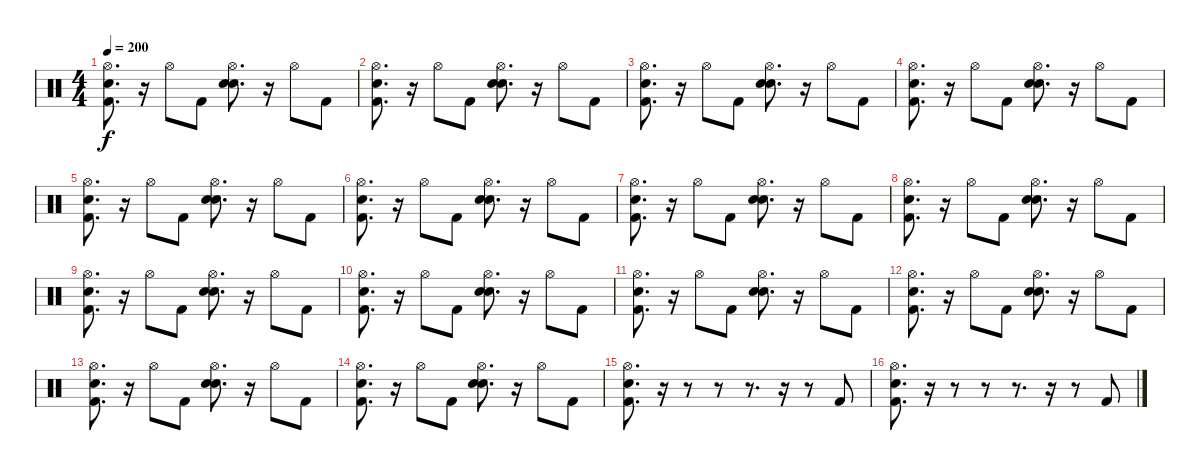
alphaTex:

\track "" {instrument percussion}
\staff {score}
\articulation defaults
\ts (4 4)
\tempo 200
\clef neutral
\ks c
("Snare (hit)" "Kick (hit) 2" "Hi-Hat (open)").8{d dy f} r.16 "Hi-Hat (open)".8 "Kick (hit) 2".8 ("Snare (hit)" "Snare (hit) 2" "Hi-Hat (open)").8{d} r.16 "Hi-Hat (open)".8 "Kick (hit) 2".8 |
("Snare (hit)" "Kick (hit) 2" "Hi-Hat (open)").8{d} r.16 "Hi-Hat (open)".8 "Kick (hit) 2".8 ("Snare (hit)" "Snare (hit) 2" "Hi-Hat (open)").8{d} r.16 "Hi-Hat (open)".8 "Kick (hit) 2".8 |
("Snare (hit)" "Kick (hit) 2" "Hi-Hat (open)").8{d} r.16 "Hi-Hat (open)".8 "Kick (hit) 2".8 ("Snare (hit)" "Snare (hit) 2" "Hi-Hat (open)").8{d} r.16 "Hi-Hat (open)".8 "Kick (hit) 2".8 |
("Snare (hit)" "Kick (hit) 2" "Hi-Hat (open)").8{d} r.16 "Hi-Hat (open)".8 "Kick (hit) 2".8 ("Snare (hit)" "Snare (hit) 2" "Hi-Hat (open)").8{d} r.16 "Hi-Hat (open)".8 "Kick (hit) 2".8 |
("Snare (hit)" "Kick (hit) 2" "Hi-Hat (open)").8{d} r.16 "Hi-Hat (open)".8 "Kick (hit) 2".8 ("Snare (hit)" "Snare (hit) 2" "Hi-Hat (open)").8{d} r.16 "Hi-Hat (open)".8 "Kick (hit) 2".8 |
("Snare (hit)" "Kick (hit) 2" "Hi-Hat (open)").8{d} r.16 "Hi-Hat (open)".8 "Kick (hit) 2".8 ("Snare (hit)" "Snare (hit) 2" "Hi-Hat (open)").8{d} r.16 "Hi-Hat (open)".8 "Kick (hit) 2".8 |
("Snare (hit)" "Kick (hit) 2" "Hi-Hat (open)").8{d} r.16 "Hi-Hat (open)".8 "Kick (hit) 2".8 ("Snare (hit)" "Snare (hit) 2" "Hi-Hat (open)").8{d} r.16 "Hi-Hat (open)".8 "Kick (hit) 2".8 |
("Snare (hit)" "Kick (hit) 2" "Hi-Hat (open)").8{d} r.16 "Hi-Hat (open)".8 "Kick (hit) 2".8 ("Snare (hit)" "Snare (hit) 2" "Hi-Hat (open)").8{d} r.16 "Hi-Hat (open)".8 "Kick (hit) 2".8 |
("Snare (hit)" "Kick (hit) 2" "Hi-Hat (open)").8{d} r.16 "Hi-Hat (open)".8 "Kick (hit) 2".8 ("Snare (hit)" "Snare (hit) 2" "Hi-Hat (open)").8{d} r.16 "Hi-Hat (open)".8 "Kick (hit) 2".8 |
("Snare (hit)" "Kick (hit) 2" "Hi-Hat (open)").8{d} r.16 "Hi-Hat (open)".8 "Kick (hit) 2".8 ("Snare (hit)" "Snare (hit) 2" "Hi-Hat (open)").8{d} r.16 "Hi-Hat (open)".8 "Kick (hit) 2".8 |
("Snare (hit)" "Kick (hit) 2" "Hi-Hat (open)").8{d} r.16 "Hi-Hat (open)".8 "Kick (hit) 2".8 ("Snare (hit)" "Snare (hit) 2" "Hi-Hat (open)").8{d} r.16 "Hi-Hat (open)".8 "Kick (hit) 2".8 |
("Snare (hit)" "Kick (hit) 2" "Hi-Hat (open)").8{d} r.16 "Hi-Hat (open)".8 "Kick (hit) 2".8 ("Snare (hit)" "Snare (hit) 2" "Hi-Hat (open)").8{d} r.16 "Hi-Hat (open)".8 "Kick (hit) 2".8 |
("Snare (hit)" "Kick (hit) 2" "Hi-Hat (open)").8{d} r.16 "Hi-Hat (open)".8 "Kick (hit) 2".8 ("Snare (hit)" "Snare (hit) 2" "Hi-Hat (open)").8{d} r.16 "Hi-Hat (open)".8 "Kick (hit) 2".8 |
("Snare (hit)" "Kick (hit) 2" "Hi-Hat (open)").8{d} r.16 "Hi-Hat (open)".8 "Kick (hit) 2".8 ("Snare (hit)" "Snare (hit) 2" "Hi-Hat (open)").8{d} r.16 "Hi-Hat (open)".8 "Kick (hit) 2".8 |
("Snare (hit)" "Kick (hit) 2" "Hi-Hat (open)").8{d} r.16 r.8 r.8 r.8{d} r.16 r.8 "Kick (hit) 2".8 |
("Snare (hit)" "Kick (hit) 2" "Hi-Hat (open)").8{d} r.16 r.8 r.8 r.8{d} r.16 r.8 "Kick (hit) 2".8
